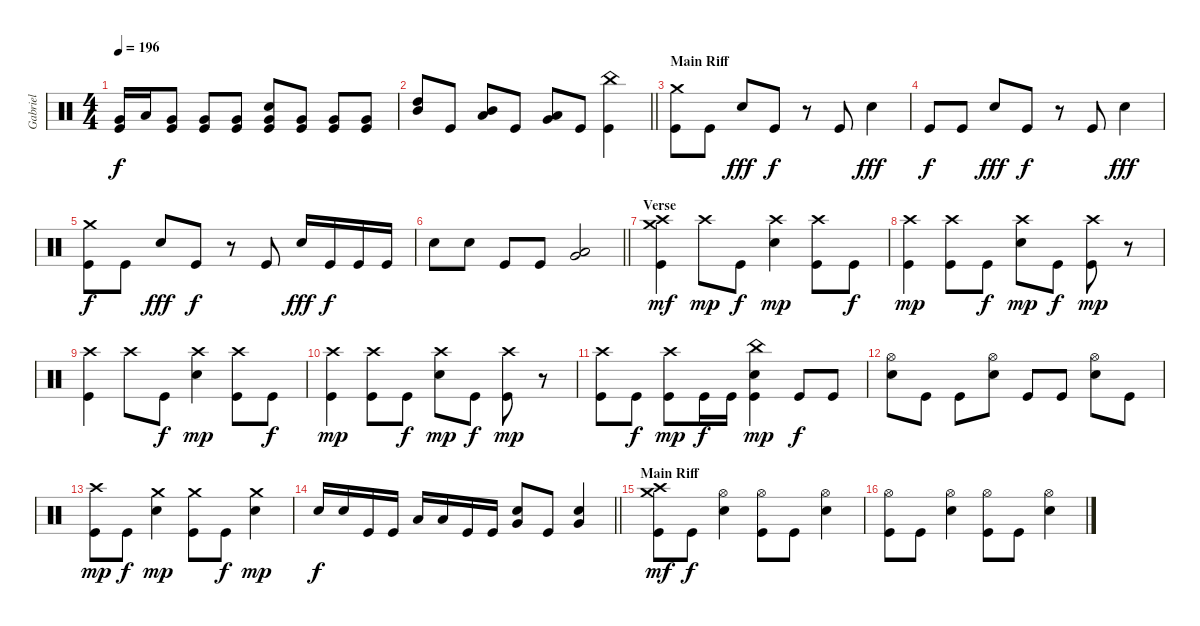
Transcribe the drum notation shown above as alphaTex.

\track ("Gabriel" "Gabriel") {instrument percussion}
\staff {score}
\articulation defaults
\ts (4 4)
\tempo 196
\clef neutral
\ks aminor
("Very Low Tom (hit)" "Kick (hit)").16{dy f} "Low Tom (hit)".16 ("Very Low Tom (hit)" "Kick (hit)").8 ("Very Low Tom (hit)" "Kick (hit)").8 ("Very Low Tom (hit)" "Kick (hit)").8 ("Snare (hit) 2" "Very Low Tom (hit)" "Kick (hit)").8 ("Very Low Tom (hit)" "Kick (hit)").8 ("Very Low Tom (hit)" "Kick (hit)").8 ("Very Low Tom (hit)" "Kick (hit)").8 |
\barLineRight lightlight
("High Tom (hit)" "Mid Tom (hit)").8 "Kick (hit)".8 ("Mid Tom (hit)" "Low Tom (hit)").8 "Kick (hit)".8 ("Low Tom (hit)" "Very Low Tom (hit)").8 "Kick (hit)".8 ("China (hit)" "Kick (hit)").4 |
\section ("" "Main Riff")
("Crash medium (hit)" "Kick (hit)").8 "Kick (hit)".8 "Snare (hit) 2".8{dy fff} "Kick (hit)".8{dy f} r.8 "Kick (hit)".8 "Snare (hit) 2".4{dy fff} |
"Kick (hit)".8{dy f} "Kick (hit)".8 "Snare (hit) 2".8{dy fff} "Kick (hit)".8{dy f} r.8 "Kick (hit)".8 "Snare (hit) 2".4{dy fff} |
("Crash medium (hit)" "Kick (hit)").8{dy f} "Kick (hit)".8 "Snare (hit) 2".8{dy fff} "Kick (hit)".8{dy f} r.8 "Kick (hit)".8 "Snare (hit) 2".16{dy fff} "Kick (hit)".16{dy f} "Kick (hit)".16 "Kick (hit)".16 |
\barLineRight lightlight "Snare (hit) 2".8 "Snare (hit) 2".8 "Kick (hit)".8 "Kick (hit)".8
("Very Low Tom (hit)" "Low Tom (hit)").2 |
\section ("" "Verse")
("Crash high (hit)" "Crash medium (hit)" "Kick (hit)").4{dy mf} "Crash high (hit)".8{dy mp} "Kick (hit)".8{dy f} ("Crash high (hit)" "Snare (hit) 2").4{dy mp} ("Crash high (hit)" "Kick (hit)").8 "Kick (hit)".8{dy f} |
("Crash high (hit)" "Kick (hit)").4{dy mp} ("Crash high (hit)" "Kick (hit)").8 "Kick (hit)".8{dy f} ("Crash high (hit)" "Snare (hit) 2").8{dy mp} "Kick (hit)".8{dy f} ("Crash high (hit)" "Kick (hit)").8{dy mp} r.8 |
("Crash high (hit)" "Kick (hit)").4 "Crash high (hit)".8 "Kick (hit)".8{dy f} ("Crash high (hit)" "Snare (hit) 2").4{dy mp} ("Crash high (hit)" "Kick (hit)").8 "Kick (hit)".8{dy f} |
("Crash high (hit)" "Kick (hit)").4{dy mp} ("Crash high (hit)" "Kick (hit)").8 "Kick (hit)".8{dy f} ("Crash high (hit)" "Snare (hit) 2").8{dy mp} "Kick (hit)".8{dy f} ("Crash high (hit)" "Kick (hit)").8{dy mp} r.8 |
("Crash high (hit)" "Kick (hit)").8 "Kick (hit)".8{dy f} ("Crash high (hit)" "Kick (hit)").8{dy mp} "Kick (hit)".16{dy f} "Kick (hit)".16 ("China (hit)" "Snare (hit) 2" "Kick (hit)").4{dy mp} "Kick (hit)".8{dy f} "Kick (hit)".8 |
("Hi-Hat (open)" "Snare (hit) 2").8 "Kick (hit)".8 "Kick (hit)".8 ("Hi-Hat (open)" "Snare (hit) 2").8 "Kick (hit)".8 "Kick (hit)".8 ("Hi-Hat (open)" "Snare (hit) 2").8 "Kick (hit)".8 |
("Crash high (hit)" "Kick (hit)").8{dy mp} "Kick (hit)".8{dy f} ("Crash medium (hit)" "Snare (hit) 2").4{dy mp} ("Crash medium (hit)" "Kick (hit)").8 "Kick (hit)".8{dy f} ("Crash medium (hit)" "Snare (hit) 2").4{dy mp} |
\barLineRight lightlight "Snare (hit) 2".16{dy f} "Snare (hit) 2".16 "Kick (hit)".16 "Kick (hit)".16 "Low Tom (hit)".16 "Low Tom (hit)".16 "Kick (hit)".16 "Kick (hit)".16
("Very Low Tom (hit)" "Snare (hit) 2").8 "Kick (hit)".8 ("Very Low Tom (hit)" "Snare (hit) 2").4 |
\section ("" "Main Riff")
("Crash medium (hit)" "Crash high (hit)" "Kick (hit)").8{dy mf} "Kick (hit)".8{dy f} ("Hi-Hat (open)" "Snare (hit) 2").4 ("Hi-Hat (open)" "Kick (hit)").8 "Kick (hit)".8 ("Hi-Hat (open)" "Snare (hit) 2").4 |
("Hi-Hat (open)" "Kick (hit)").8 "Kick (hit)".8 ("Hi-Hat (open)" "Snare (hit) 2").4 ("Hi-Hat (open)" "Kick (hit)").8 "Kick (hit)".8 ("Hi-Hat (open)" "Snare (hit) 2").4
